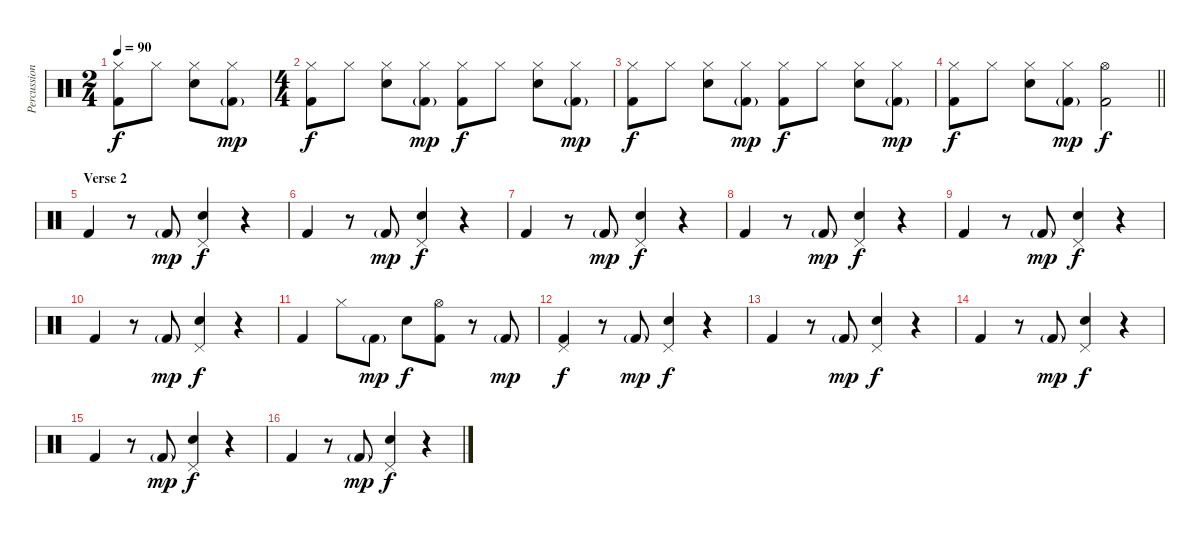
\track ("Percussion" "Percussion") {instrument percussion}
\staff {score}
\articulation defaults
\ts (2 4)
\tempo 90
\clef neutral
\ks c
("Hi-Hat (closed)" "Kick (hit) 2").8{dy f} "Hi-Hat (closed)".8 ("Hi-Hat (closed)" "Snare (hit) 2").8 ("Hi-Hat (closed)" "Kick (hit) 2"{g}).8{dy mp} |
\ts (4 4)
("Hi-Hat (closed)" "Kick (hit) 2").8{dy f} "Hi-Hat (closed)".8 ("Hi-Hat (closed)" "Snare (hit) 2").8 ("Hi-Hat (closed)" "Kick (hit) 2"{g}).8{dy mp} ("Hi-Hat (closed)" "Kick (hit) 2").8{dy f} "Hi-Hat (closed)".8 ("Hi-Hat (closed)" "Snare (hit) 2").8 ("Hi-Hat (closed)" "Kick (hit) 2"{g}).8{dy mp} |
("Hi-Hat (closed)" "Kick (hit) 2").8{dy f} "Hi-Hat (closed)".8 ("Hi-Hat (closed)" "Snare (hit) 2").8 ("Hi-Hat (closed)" "Kick (hit) 2"{g}).8{dy mp} ("Hi-Hat (closed)" "Kick (hit) 2").8{dy f} "Hi-Hat (closed)".8 ("Hi-Hat (closed)" "Snare (hit) 2").8 ("Hi-Hat (closed)" "Kick (hit) 2"{g}).8{dy mp} |
\barLineRight lightlight
("Hi-Hat (closed)" "Kick (hit) 2").8{dy f} "Hi-Hat (closed)".8 ("Hi-Hat (closed)" "Snare (hit) 2").8 ("Hi-Hat (closed)" "Kick (hit) 2"{g}).8{dy mp} ("Hi-Hat (open)" "Kick (hit) 2").2{dy f} |
\section ("" "Verse 2")
"Kick (hit) 2".4 r.8 "Kick (hit) 2"{g}.8{dy mp} ("Pedal Hi-Hat (hit)" "Snare (hit) 2").4{dy f} r.4 |
"Kick (hit) 2".4 r.8 "Kick (hit) 2"{g}.8{dy mp} ("Pedal Hi-Hat (hit)" "Snare (hit) 2").4{dy f} r.4 |
"Kick (hit) 2".4 r.8 "Kick (hit) 2"{g}.8{dy mp} ("Pedal Hi-Hat (hit)" "Snare (hit) 2").4{dy f} r.4 |
"Kick (hit) 2".4 r.8 "Kick (hit) 2"{g}.8{dy mp} ("Pedal Hi-Hat (hit)" "Snare (hit) 2").4{dy f} r.4 |
"Kick (hit) 2".4 r.8 "Kick (hit) 2"{g}.8{dy mp} ("Pedal Hi-Hat (hit)" "Snare (hit) 2").4{dy f} r.4 |
"Kick (hit) 2".4 r.8 "Kick (hit) 2"{g}.8{dy mp} ("Pedal Hi-Hat (hit)" "Snare (hit) 2").4{dy f} r.4 |
"Kick (hit) 2".4 "Hi-Hat (closed)".8 "Kick (hit) 2"{g}.8{dy mp} "Snare (hit) 2".8{dy f} ("Hi-Hat (open)" "Kick (hit) 2").8 r.8 "Kick (hit) 2"{g}.8{dy mp} |
("Pedal Hi-Hat (hit)" "Kick (hit) 2").4{dy f} r.8 "Kick (hit) 2"{g}.8{dy mp} ("Pedal Hi-Hat (hit)" "Snare (hit) 2").4{dy f} r.4 |
"Kick (hit) 2".4 r.8 "Kick (hit) 2"{g}.8{dy mp} ("Pedal Hi-Hat (hit)" "Snare (hit) 2").4{dy f} r.4 |
"Kick (hit) 2".4 r.8 "Kick (hit) 2"{g}.8{dy mp} ("Pedal Hi-Hat (hit)" "Snare (hit) 2").4{dy f} r.4 |
"Kick (hit) 2".4 r.8 "Kick (hit) 2"{g}.8{dy mp} ("Pedal Hi-Hat (hit)" "Snare (hit) 2").4{dy f} r.4 |
"Kick (hit) 2".4 r.8 "Kick (hit) 2"{g}.8{dy mp} ("Pedal Hi-Hat (hit)" "Snare (hit) 2").4{dy f} r.4
